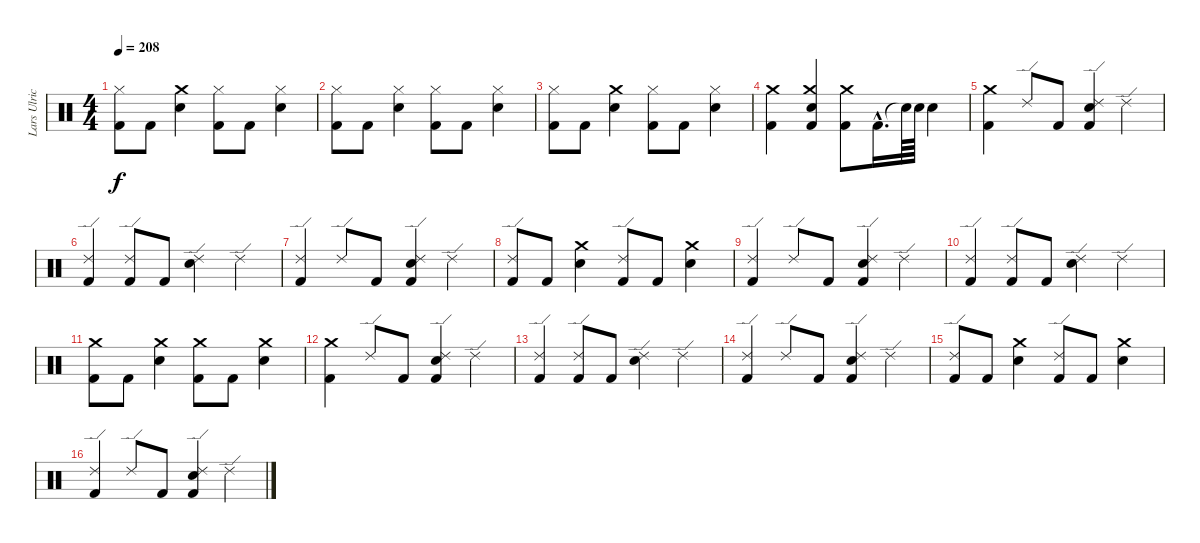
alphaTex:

\track ("Lars Ulrich (Drums)" "Lars Ulric") {instrument percussion}
\staff {score}
\articulation defaults
\ts (4 4)
\tempo 208
\clef neutral
\ks c
("Kick (hit) 2" "Hi-Hat (closed)").8{dy f} "Kick (hit) 2".8 ("Crash medium (hit)" "Snare (hit) 2").4 ("Kick (hit) 2" "Hi-Hat (closed)").8 "Kick (hit) 2".8 ("Snare (hit) 2" "Hi-Hat (closed)").4 |
("Kick (hit) 2" "Hi-Hat (closed)").8 "Kick (hit) 2".8 ("Snare (hit) 2" "Hi-Hat (closed)").4 ("Kick (hit) 2" "Hi-Hat (closed)").8 "Kick (hit) 2".8 ("Snare (hit) 2" "Hi-Hat (closed)").4 |
("Kick (hit) 2" "Hi-Hat (closed)").8 "Kick (hit) 2".8 ("Crash medium (hit)" "Snare (hit) 2").4 ("Kick (hit) 2" "Hi-Hat (closed)").8 "Kick (hit) 2".8 ("Snare (hit) 2" "Hi-Hat (closed)").4 |
("Kick (hit) 2" "Crash medium (hit)").4 ("Kick (hit) 2" "Snare (hit) 2" "Crash medium (hit)").4 ("Kick (hit) 2" "Crash medium (hit)").8 "Kick (hit) 2"{hac}.16{d} "Snare (hit)"{t}.64 "Snare (hit) 2".64 "Snare (hit) 2".4 |
("Kick (hit) 2" "Crash medium (hit)").4 "Ride (edge) 2".8 "Kick (hit) 2".8 ("Kick (hit) 2" "Snare (hit) 2" "Ride (edge) 2").4 "Ride (edge) 2".4 |
("Kick (hit) 2" "Ride (edge) 2").4 ("Ride (edge) 2" "Kick (hit) 2").8 "Kick (hit) 2".8 ("Snare (hit) 2" "Ride (edge) 2").4 "Ride (edge) 2".4 |
("Kick (hit) 2" "Ride (edge) 2").4 "Ride (edge) 2".8 "Kick (hit) 2".8 ("Ride (edge) 2" "Snare (hit) 2" "Kick (hit) 2").4 "Ride (edge) 2".4 |
("Ride (edge) 2" "Kick (hit) 2").8 "Kick (hit) 2".8 ("Snare (hit) 2" "Crash medium (hit)").4 ("Ride (edge) 2" "Kick (hit) 2").8 "Kick (hit) 2".8 ("Snare (hit) 2" "Crash medium (hit)").4 |
("Ride (edge) 2" "Kick (hit) 2").4 "Ride (edge) 2".8 "Kick (hit) 2".8 ("Ride (edge) 2" "Snare (hit) 2" "Kick (hit) 2").4 "Ride (edge) 2".4 |
("Kick (hit) 2" "Ride (edge) 2").4 ("Ride (edge) 2" "Kick (hit) 2").8 "Kick (hit) 2".8 ("Snare (hit) 2" "Ride (edge) 2").4 "Ride (edge) 2".4 |
("Kick (hit) 2" "Crash medium (hit)").8 "Kick (hit) 2".8 ("Snare (hit) 2" "Crash medium (hit)").4 ("Kick (hit) 2" "Crash medium (hit)").8 "Kick (hit) 2".8 ("Snare (hit) 2" "Crash medium (hit)").4 |
("Kick (hit) 2" "Crash medium (hit)").4 "Ride (edge) 2".8 "Kick (hit) 2".8 ("Kick (hit) 2" "Snare (hit) 2" "Ride (edge) 2").4 "Ride (edge) 2".4 |
("Kick (hit) 2" "Ride (edge) 2").4 ("Ride (edge) 2" "Kick (hit) 2").8 "Kick (hit) 2".8 ("Snare (hit) 2" "Ride (edge) 2").4 "Ride (edge) 2".4 |
("Kick (hit) 2" "Ride (edge) 2").4 "Ride (edge) 2".8 "Kick (hit) 2".8 ("Ride (edge) 2" "Snare (hit) 2" "Kick (hit) 2").4 "Ride (edge) 2".4 |
("Ride (edge) 2" "Kick (hit) 2").8 "Kick (hit) 2".8 ("Snare (hit) 2" "Crash medium (hit)").4 ("Ride (edge) 2" "Kick (hit) 2").8 "Kick (hit) 2".8 ("Snare (hit) 2" "Crash medium (hit)").4 |
("Ride (edge) 2" "Kick (hit) 2").4 "Ride (edge) 2".8 "Kick (hit) 2".8 ("Ride (edge) 2" "Snare (hit) 2" "Kick (hit) 2").4 "Ride (edge) 2".4
